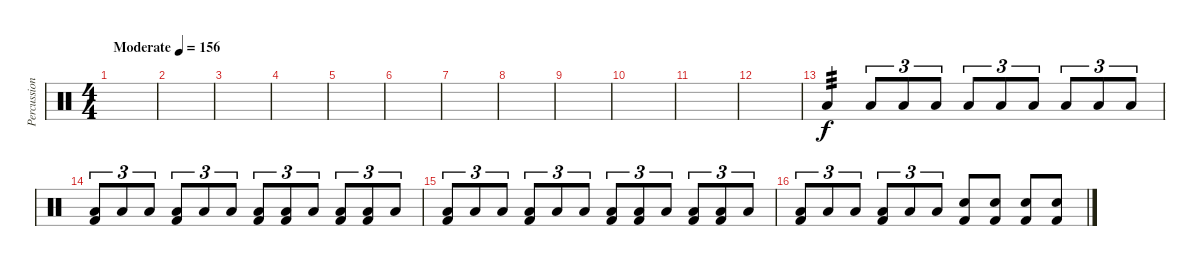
\track ("Percussion" "Percussion") {instrument percussion}
\staff {score}
\articulation defaults
\ts (4 4)
\tempo (156 "Moderate")
\clef neutral
\ks c
|
|
|
|
|
|
|
|
|
|
|
|
"Low Floor Tom (hit)".4{tp 3} "Low Floor Tom (hit)".8{tu (3 2)} "Low Floor Tom (hit)".8{tu (3 2)} "Low Floor Tom (hit)".8{tu (3 2)} "Low Floor Tom (hit)".8{tu (3 2)} "Low Floor Tom (hit)".8{tu (3 2)} "Low Floor Tom (hit)".8{tu (3 2)} "Low Floor Tom (hit)".8{tu (3 2)} "Low Floor Tom (hit)".8{tu (3 2)} "Low Floor Tom (hit)".8{tu (3 2)} |
("Low Floor Tom (hit)" "Kick (hit) 2").8{tu (3 2)} "Low Floor Tom (hit)".8{tu (3 2)} "Low Floor Tom (hit)".8{tu (3 2)} ("Low Floor Tom (hit)" "Kick (hit) 2").8{tu (3 2)} "Low Floor Tom (hit)".8{tu (3 2)} "Low Floor Tom (hit)".8{tu (3 2)} ("Low Floor Tom (hit)" "Kick (hit) 2").8{tu (3 2)} ("Low Floor Tom (hit)" "Kick (hit) 2").8{tu (3 2)} "Low Floor Tom (hit)".8{tu (3 2)} ("Low Floor Tom (hit)" "Kick (hit) 2").8{tu (3 2)} ("Low Floor Tom (hit)" "Kick (hit) 2").8{tu (3 2)} "Low Floor Tom (hit)".8{tu (3 2)} |
("Low Floor Tom (hit)" "Kick (hit) 2").8{tu (3 2)} "Low Floor Tom (hit)".8{tu (3 2)} "Low Floor Tom (hit)".8{tu (3 2)} ("Low Floor Tom (hit)" "Kick (hit) 2").8{tu (3 2)} "Low Floor Tom (hit)".8{tu (3 2)} "Low Floor Tom (hit)".8{tu (3 2)} ("Low Floor Tom (hit)" "Kick (hit) 2").8{tu (3 2)} ("Low Floor Tom (hit)" "Kick (hit) 2").8{tu (3 2)} "Low Floor Tom (hit)".8{tu (3 2)} ("Low Floor Tom (hit)" "Kick (hit) 2").8{tu (3 2)} ("Low Floor Tom (hit)" "Kick (hit) 2").8{tu (3 2)} "Low Floor Tom (hit)".8{tu (3 2)} |
("Low Floor Tom (hit)" "Kick (hit) 2").8{tu (3 2)} "Low Floor Tom (hit)".8{tu (3 2)} "Low Floor Tom (hit)".8{tu (3 2)} ("Low Floor Tom (hit)" "Kick (hit) 2").8{tu (3 2)} "Low Floor Tom (hit)".8{tu (3 2)} "Low Floor Tom (hit)".8{tu (3 2)} ("Snare (hit) 2" "Kick (hit) 2").8 ("Snare (hit) 2" "Kick (hit) 2").8 ("Snare (hit) 2" "Kick (hit) 2").8 ("Snare (hit) 2" "Kick (hit) 2").8
